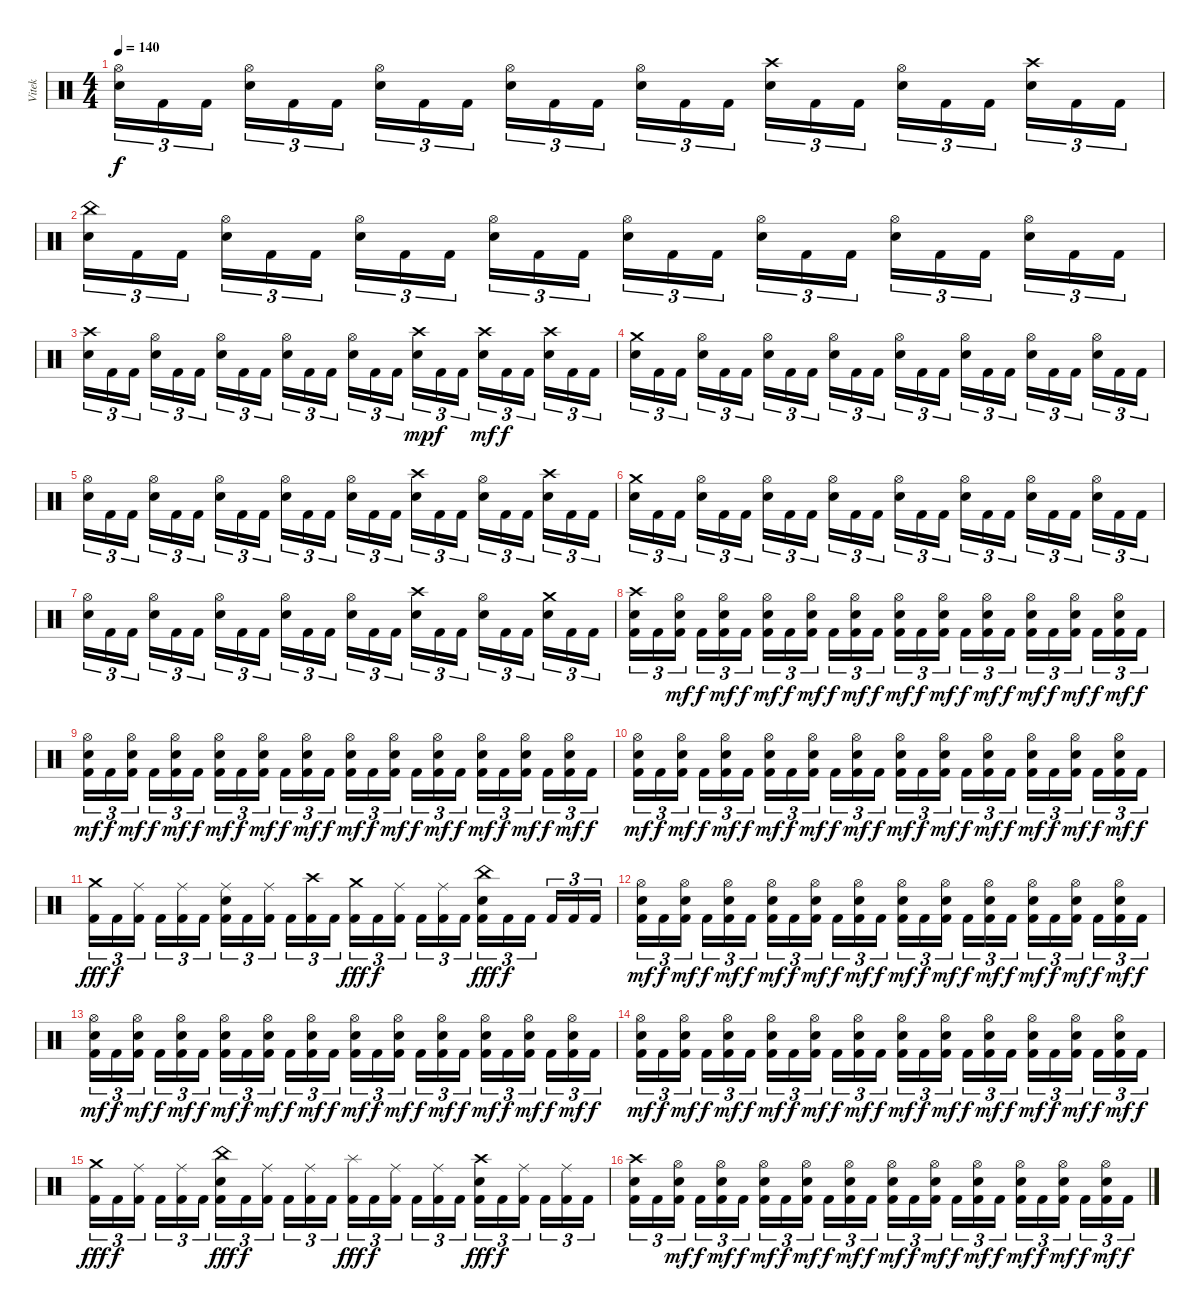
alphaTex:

\track ("Vitek" "Vitek") {instrument percussion}
\staff {score}
\articulation defaults
\ts (4 4)
\tempo 140
\clef neutral
\ks c
("Hi-Hat (open)" "Electric Snare (hit)").16{tu (3 2) dy f} "Kick (hit) 2".16{tu (3 2)} "Kick (hit) 2".16{tu (3 2)} ("Hi-Hat (open)" "Electric Snare (hit)").16{tu (3 2)} "Kick (hit) 2".16{tu (3 2)} "Kick (hit) 2".16{tu (3 2)} ("Hi-Hat (open)" "Electric Snare (hit)").16{tu (3 2)} "Kick (hit) 2".16{tu (3 2)} "Kick (hit) 2".16{tu (3 2)} ("Hi-Hat (open)" "Electric Snare (hit)").16{tu (3 2)} "Kick (hit) 2".16{tu (3 2)} "Kick (hit) 2".16{tu (3 2)} ("Hi-Hat (open)" "Electric Snare (hit)").16{tu (3 2)} "Kick (hit) 2".16{tu (3 2)} "Kick (hit) 2".16{tu (3 2)} ("Crash high (hit)" "Electric Snare (hit)").16{tu (3 2)} "Kick (hit) 2".16{tu (3 2)} "Kick (hit) 2".16{tu (3 2)} ("Hi-Hat (open)" "Electric Snare (hit)").16{tu (3 2)} "Kick (hit) 2".16{tu (3 2)} "Kick (hit) 2".16{tu (3 2)} ("Crash high (hit)" "Electric Snare (hit)").16{tu (3 2)} "Kick (hit) 2".16{tu (3 2)} "Kick (hit) 2".16{tu (3 2)} |
("China (hit)" "Electric Snare (hit)").16{tu (3 2)} "Kick (hit) 2".16{tu (3 2)} "Kick (hit) 2".16{tu (3 2)} ("Hi-Hat (open)" "Electric Snare (hit)").16{tu (3 2)} "Kick (hit) 2".16{tu (3 2)} "Kick (hit) 2".16{tu (3 2)} ("Hi-Hat (open)" "Electric Snare (hit)").16{tu (3 2)} "Kick (hit) 2".16{tu (3 2)} "Kick (hit) 2".16{tu (3 2)} ("Hi-Hat (open)" "Electric Snare (hit)").16{tu (3 2)} "Kick (hit) 2".16{tu (3 2)} "Kick (hit) 2".16{tu (3 2)} ("Hi-Hat (open)" "Electric Snare (hit)").16{tu (3 2)} "Kick (hit) 2".16{tu (3 2)} "Kick (hit) 2".16{tu (3 2)} ("Hi-Hat (open)" "Electric Snare (hit)").16{tu (3 2)} "Kick (hit) 2".16{tu (3 2)} "Kick (hit) 2".16{tu (3 2)} ("Hi-Hat (open)" "Electric Snare (hit)").16{tu (3 2)} "Kick (hit) 2".16{tu (3 2)} "Kick (hit) 2".16{tu (3 2)} ("Hi-Hat (open)" "Electric Snare (hit)").16{tu (3 2)} "Kick (hit) 2".16{tu (3 2)} "Kick (hit) 2".16{tu (3 2)} |
("Crash high (hit)" "Electric Snare (hit)").16{tu (3 2)} "Kick (hit) 2".16{tu (3 2)} "Kick (hit) 2".16{tu (3 2)} ("Hi-Hat (open)" "Electric Snare (hit)").16{tu (3 2)} "Kick (hit) 2".16{tu (3 2)} "Kick (hit) 2".16{tu (3 2)} ("Hi-Hat (open)" "Electric Snare (hit)").16{tu (3 2)} "Kick (hit) 2".16{tu (3 2)} "Kick (hit) 2".16{tu (3 2)} ("Hi-Hat (open)" "Electric Snare (hit)").16{tu (3 2)} "Kick (hit) 2".16{tu (3 2)} "Kick (hit) 2".16{tu (3 2)} ("Hi-Hat (open)" "Electric Snare (hit)").16{tu (3 2)} "Kick (hit) 2".16{tu (3 2)} "Kick (hit) 2".16{tu (3 2)} ("Crash high (hit)" "Electric Snare (hit)").16{tu (3 2) dy mp} "Kick (hit) 2".16{tu (3 2) dy f} "Kick (hit) 2".16{tu (3 2)} ("Crash high (hit)" "Electric Snare (hit)").16{tu (3 2) dy mf} "Kick (hit) 2".16{tu (3 2) dy f} "Kick (hit) 2".16{tu (3 2)} ("Crash high (hit)" "Electric Snare (hit)").16{tu (3 2)} "Kick (hit) 2".16{tu (3 2)} "Kick (hit) 2".16{tu (3 2)} |
("Crash medium (hit)" "Electric Snare (hit)").16{tu (3 2)} "Kick (hit) 2".16{tu (3 2)} "Kick (hit) 2".16{tu (3 2)} ("Hi-Hat (open)" "Electric Snare (hit)").16{tu (3 2)} "Kick (hit) 2".16{tu (3 2)} "Kick (hit) 2".16{tu (3 2)} ("Hi-Hat (open)" "Electric Snare (hit)").16{tu (3 2)} "Kick (hit) 2".16{tu (3 2)} "Kick (hit) 2".16{tu (3 2)} ("Hi-Hat (open)" "Electric Snare (hit)").16{tu (3 2)} "Kick (hit) 2".16{tu (3 2)} "Kick (hit) 2".16{tu (3 2)} ("Hi-Hat (open)" "Electric Snare (hit)").16{tu (3 2)} "Kick (hit) 2".16{tu (3 2)} "Kick (hit) 2".16{tu (3 2)} ("Hi-Hat (open)" "Electric Snare (hit)").16{tu (3 2)} "Kick (hit) 2".16{tu (3 2)} "Kick (hit) 2".16{tu (3 2)} ("Hi-Hat (open)" "Electric Snare (hit)").16{tu (3 2)} "Kick (hit) 2".16{tu (3 2)} "Kick (hit) 2".16{tu (3 2)} ("Hi-Hat (open)" "Electric Snare (hit)").16{tu (3 2)} "Kick (hit) 2".16{tu (3 2)} "Kick (hit) 2".16{tu (3 2)} |
("Hi-Hat (open)" "Electric Snare (hit)").16{tu (3 2)} "Kick (hit) 2".16{tu (3 2)} "Kick (hit) 2".16{tu (3 2)} ("Hi-Hat (open)" "Electric Snare (hit)").16{tu (3 2)} "Kick (hit) 2".16{tu (3 2)} "Kick (hit) 2".16{tu (3 2)} ("Hi-Hat (open)" "Electric Snare (hit)").16{tu (3 2)} "Kick (hit) 2".16{tu (3 2)} "Kick (hit) 2".16{tu (3 2)} ("Hi-Hat (open)" "Electric Snare (hit)").16{tu (3 2)} "Kick (hit) 2".16{tu (3 2)} "Kick (hit) 2".16{tu (3 2)} ("Hi-Hat (open)" "Electric Snare (hit)").16{tu (3 2)} "Kick (hit) 2".16{tu (3 2)} "Kick (hit) 2".16{tu (3 2)} ("Crash high (hit)" "Electric Snare (hit)").16{tu (3 2)} "Kick (hit) 2".16{tu (3 2)} "Kick (hit) 2".16{tu (3 2)} ("Hi-Hat (open)" "Electric Snare (hit)").16{tu (3 2)} "Kick (hit) 2".16{tu (3 2)} "Kick (hit) 2".16{tu (3 2)} ("Crash high (hit)" "Electric Snare (hit)").16{tu (3 2)} "Kick (hit) 2".16{tu (3 2)} "Kick (hit) 2".16{tu (3 2)} |
("Crash medium (hit)" "Electric Snare (hit)").16{tu (3 2)} "Kick (hit) 2".16{tu (3 2)} "Kick (hit) 2".16{tu (3 2)} ("Hi-Hat (open)" "Electric Snare (hit)").16{tu (3 2)} "Kick (hit) 2".16{tu (3 2)} "Kick (hit) 2".16{tu (3 2)} ("Hi-Hat (open)" "Electric Snare (hit)").16{tu (3 2)} "Kick (hit) 2".16{tu (3 2)} "Kick (hit) 2".16{tu (3 2)} ("Hi-Hat (open)" "Electric Snare (hit)").16{tu (3 2)} "Kick (hit) 2".16{tu (3 2)} "Kick (hit) 2".16{tu (3 2)} ("Hi-Hat (open)" "Electric Snare (hit)").16{tu (3 2)} "Kick (hit) 2".16{tu (3 2)} "Kick (hit) 2".16{tu (3 2)} ("Hi-Hat (open)" "Electric Snare (hit)").16{tu (3 2)} "Kick (hit) 2".16{tu (3 2)} "Kick (hit) 2".16{tu (3 2)} ("Hi-Hat (open)" "Electric Snare (hit)").16{tu (3 2)} "Kick (hit) 2".16{tu (3 2)} "Kick (hit) 2".16{tu (3 2)} ("Hi-Hat (open)" "Electric Snare (hit)").16{tu (3 2)} "Kick (hit) 2".16{tu (3 2)} "Kick (hit) 2".16{tu (3 2)} |
("Hi-Hat (open)" "Electric Snare (hit)").16{tu (3 2)} "Kick (hit) 2".16{tu (3 2)} "Kick (hit) 2".16{tu (3 2)} ("Hi-Hat (open)" "Electric Snare (hit)").16{tu (3 2)} "Kick (hit) 2".16{tu (3 2)} "Kick (hit) 2".16{tu (3 2)} ("Hi-Hat (open)" "Electric Snare (hit)").16{tu (3 2)} "Kick (hit) 2".16{tu (3 2)} "Kick (hit) 2".16{tu (3 2)} ("Hi-Hat (open)" "Electric Snare (hit)").16{tu (3 2)} "Kick (hit) 2".16{tu (3 2)} "Kick (hit) 2".16{tu (3 2)} ("Hi-Hat (open)" "Electric Snare (hit)").16{tu (3 2)} "Kick (hit) 2".16{tu (3 2)} "Kick (hit) 2".16{tu (3 2)} ("Crash high (hit)" "Electric Snare (hit)").16{tu (3 2)} "Kick (hit) 2".16{tu (3 2)} "Kick (hit) 2".16{tu (3 2)} ("Hi-Hat (open)" "Electric Snare (hit)").16{tu (3 2)} "Kick (hit) 2".16{tu (3 2)} "Kick (hit) 2".16{tu (3 2)} ("Crash medium (hit)" "Electric Snare (hit)").16{tu (3 2)} "Kick (hit) 2".16{tu (3 2)} "Kick (hit) 2".16{tu (3 2)} |
("Crash high (hit)" "Electric Snare (hit)" "Kick (hit) 2").16{tu (3 2)} "Kick (hit) 2".16{tu (3 2)} ("Hi-Hat (open)" "Electric Snare (hit)" "Kick (hit) 2").16{tu (3 2) dy mf} "Kick (hit) 2".16{tu (3 2) dy f} ("Hi-Hat (open)" "Electric Snare (hit)" "Kick (hit) 2").16{tu (3 2) dy mf} "Kick (hit) 2".16{tu (3 2) dy f} ("Hi-Hat (open)" "Electric Snare (hit)" "Kick (hit) 2").16{tu (3 2) dy mf} "Kick (hit) 2".16{tu (3 2) dy f} ("Hi-Hat (open)" "Electric Snare (hit)" "Kick (hit) 2").16{tu (3 2) dy mf} "Kick (hit) 2".16{tu (3 2) dy f} ("Hi-Hat (open)" "Electric Snare (hit)" "Kick (hit) 2").16{tu (3 2) dy mf} "Kick (hit) 2".16{tu (3 2) dy f} ("Hi-Hat (open)" "Electric Snare (hit)" "Kick (hit) 2").16{tu (3 2) dy mf} "Kick (hit) 2".16{tu (3 2) dy f} ("Hi-Hat (open)" "Electric Snare (hit)" "Kick (hit) 2").16{tu (3 2) dy mf} "Kick (hit) 2".16{tu (3 2) dy f} ("Hi-Hat (open)" "Electric Snare (hit)" "Kick (hit) 2").16{tu (3 2) dy mf} "Kick (hit) 2".16{tu (3 2) dy f} ("Hi-Hat (open)" "Electric Snare (hit)" "Kick (hit) 2").16{tu (3 2) dy mf} "Kick (hit) 2".16{tu (3 2) dy f} ("Hi-Hat (open)" "Electric Snare (hit)" "Kick (hit) 2").16{tu (3 2) dy mf} "Kick (hit) 2".16{tu (3 2) dy f} ("Hi-Hat (open)" "Electric Snare (hit)" "Kick (hit) 2").16{tu (3 2) dy mf} "Kick (hit) 2".16{tu (3 2) dy f} |
("Hi-Hat (open)" "Electric Snare (hit)" "Kick (hit) 2").16{tu (3 2) dy mf} "Kick (hit) 2".16{tu (3 2) dy f} ("Hi-Hat (open)" "Electric Snare (hit)" "Kick (hit) 2").16{tu (3 2) dy mf} "Kick (hit) 2".16{tu (3 2) dy f} ("Hi-Hat (open)" "Electric Snare (hit)" "Kick (hit) 2").16{tu (3 2) dy mf} "Kick (hit) 2".16{tu (3 2) dy f} ("Hi-Hat (open)" "Electric Snare (hit)" "Kick (hit) 2").16{tu (3 2) dy mf} "Kick (hit) 2".16{tu (3 2) dy f} ("Hi-Hat (open)" "Electric Snare (hit)" "Kick (hit) 2").16{tu (3 2) dy mf} "Kick (hit) 2".16{tu (3 2) dy f} ("Hi-Hat (open)" "Electric Snare (hit)" "Kick (hit) 2").16{tu (3 2) dy mf} "Kick (hit) 2".16{tu (3 2) dy f} ("Hi-Hat (open)" "Electric Snare (hit)" "Kick (hit) 2").16{tu (3 2) dy mf} "Kick (hit) 2".16{tu (3 2) dy f} ("Hi-Hat (open)" "Electric Snare (hit)" "Kick (hit) 2").16{tu (3 2) dy mf} "Kick (hit) 2".16{tu (3 2) dy f} ("Hi-Hat (open)" "Electric Snare (hit)" "Kick (hit) 2").16{tu (3 2) dy mf} "Kick (hit) 2".16{tu (3 2) dy f} ("Hi-Hat (open)" "Electric Snare (hit)" "Kick (hit) 2").16{tu (3 2) dy mf} "Kick (hit) 2".16{tu (3 2) dy f} ("Hi-Hat (open)" "Electric Snare (hit)" "Kick (hit) 2").16{tu (3 2) dy mf} "Kick (hit) 2".16{tu (3 2) dy f} ("Hi-Hat (open)" "Electric Snare (hit)" "Kick (hit) 2").16{tu (3 2) dy mf} "Kick (hit) 2".16{tu (3 2) dy f} |
("Hi-Hat (open)" "Electric Snare (hit)" "Kick (hit) 2").16{tu (3 2) dy mf} "Kick (hit) 2".16{tu (3 2) dy f} ("Hi-Hat (open)" "Electric Snare (hit)" "Kick (hit) 2").16{tu (3 2) dy mf} "Kick (hit) 2".16{tu (3 2) dy f} ("Hi-Hat (open)" "Electric Snare (hit)" "Kick (hit) 2").16{tu (3 2) dy mf} "Kick (hit) 2".16{tu (3 2) dy f} ("Hi-Hat (open)" "Electric Snare (hit)" "Kick (hit) 2").16{tu (3 2) dy mf} "Kick (hit) 2".16{tu (3 2) dy f} ("Hi-Hat (open)" "Electric Snare (hit)" "Kick (hit) 2").16{tu (3 2) dy mf} "Kick (hit) 2".16{tu (3 2) dy f} ("Hi-Hat (open)" "Electric Snare (hit)" "Kick (hit) 2").16{tu (3 2) dy mf} "Kick (hit) 2".16{tu (3 2) dy f} ("Hi-Hat (open)" "Electric Snare (hit)" "Kick (hit) 2").16{tu (3 2) dy mf} "Kick (hit) 2".16{tu (3 2) dy f} ("Hi-Hat (open)" "Electric Snare (hit)" "Kick (hit) 2").16{tu (3 2) dy mf} "Kick (hit) 2".16{tu (3 2) dy f} ("Hi-Hat (open)" "Electric Snare (hit)" "Kick (hit) 2").16{tu (3 2) dy mf} "Kick (hit) 2".16{tu (3 2) dy f} ("Hi-Hat (open)" "Electric Snare (hit)" "Kick (hit) 2").16{tu (3 2) dy mf} "Kick (hit) 2".16{tu (3 2) dy f} ("Hi-Hat (open)" "Electric Snare (hit)" "Kick (hit) 2").16{tu (3 2) dy mf} "Kick (hit) 2".16{tu (3 2) dy f} ("Hi-Hat (open)" "Electric Snare (hit)" "Kick (hit) 2").16{tu (3 2) dy mf} "Kick (hit) 2".16{tu (3 2) dy f} |
("Crash medium (hit)" "Kick (hit) 2").16{tu (3 2) dy fff} "Kick (hit) 2".16{tu (3 2) dy f} ("Ride (middle)" "Kick (hit) 2").16{tu (3 2)} "Kick (hit) 2".16{tu (3 2)} ("Ride (middle)" "Kick (hit) 2").16{tu (3 2)} "Kick (hit) 2".16{tu (3 2)} ("Ride (middle)" "Electric Snare (hit)" "Kick (hit) 2").16{tu (3 2)} "Kick (hit) 2".16{tu (3 2)} ("Ride (middle)" "Kick (hit) 2").16{tu (3 2)} "Kick (hit) 2".16{tu (3 2)} ("Crash high (hit)" "Kick (hit) 2").16{tu (3 2)} "Kick (hit) 2".16{tu (3 2)} ("Crash medium (hit)" "Kick (hit) 2").16{tu (3 2) dy fff} "Kick (hit) 2".16{tu (3 2) dy f} ("Ride (middle)" "Kick (hit) 2").16{tu (3 2)} "Kick (hit) 2".16{tu (3 2)} ("Ride (middle)" "Kick (hit) 2").16{tu (3 2)} "Kick (hit) 2".16{tu (3 2)} ("China (hit)" "Electric Snare (hit)" "Kick (hit) 2").16{tu (3 2) dy fff} "Kick (hit) 2".16{tu (3 2) dy f} "Kick (hit) 2".16{tu (3 2)} "Kick (hit) 2".16{tu (3 2)} "Kick (hit) 2".16{tu (3 2)} "Kick (hit) 2".16{tu (3 2)} |
("Hi-Hat (open)" "Electric Snare (hit)" "Kick (hit) 2").16{tu (3 2) dy mf} "Kick (hit) 2".16{tu (3 2) dy f} ("Hi-Hat (open)" "Electric Snare (hit)" "Kick (hit) 2").16{tu (3 2) dy mf} "Kick (hit) 2".16{tu (3 2) dy f} ("Hi-Hat (open)" "Electric Snare (hit)" "Kick (hit) 2").16{tu (3 2) dy mf} "Kick (hit) 2".16{tu (3 2) dy f} ("Hi-Hat (open)" "Electric Snare (hit)" "Kick (hit) 2").16{tu (3 2) dy mf} "Kick (hit) 2".16{tu (3 2) dy f} ("Hi-Hat (open)" "Electric Snare (hit)" "Kick (hit) 2").16{tu (3 2) dy mf} "Kick (hit) 2".16{tu (3 2) dy f} ("Hi-Hat (open)" "Electric Snare (hit)" "Kick (hit) 2").16{tu (3 2) dy mf} "Kick (hit) 2".16{tu (3 2) dy f} ("Hi-Hat (open)" "Electric Snare (hit)" "Kick (hit) 2").16{tu (3 2) dy mf} "Kick (hit) 2".16{tu (3 2) dy f} ("Hi-Hat (open)" "Electric Snare (hit)" "Kick (hit) 2").16{tu (3 2) dy mf} "Kick (hit) 2".16{tu (3 2) dy f} ("Hi-Hat (open)" "Electric Snare (hit)" "Kick (hit) 2").16{tu (3 2) dy mf} "Kick (hit) 2".16{tu (3 2) dy f} ("Hi-Hat (open)" "Electric Snare (hit)" "Kick (hit) 2").16{tu (3 2) dy mf} "Kick (hit) 2".16{tu (3 2) dy f} ("Hi-Hat (open)" "Electric Snare (hit)" "Kick (hit) 2").16{tu (3 2) dy mf} "Kick (hit) 2".16{tu (3 2) dy f} ("Hi-Hat (open)" "Electric Snare (hit)" "Kick (hit) 2").16{tu (3 2) dy mf} "Kick (hit) 2".16{tu (3 2) dy f} |
("Hi-Hat (open)" "Electric Snare (hit)" "Kick (hit) 2").16{tu (3 2) dy mf} "Kick (hit) 2".16{tu (3 2) dy f} ("Hi-Hat (open)" "Electric Snare (hit)" "Kick (hit) 2").16{tu (3 2) dy mf} "Kick (hit) 2".16{tu (3 2) dy f} ("Hi-Hat (open)" "Electric Snare (hit)" "Kick (hit) 2").16{tu (3 2) dy mf} "Kick (hit) 2".16{tu (3 2) dy f} ("Hi-Hat (open)" "Electric Snare (hit)" "Kick (hit) 2").16{tu (3 2) dy mf} "Kick (hit) 2".16{tu (3 2) dy f} ("Hi-Hat (open)" "Electric Snare (hit)" "Kick (hit) 2").16{tu (3 2) dy mf} "Kick (hit) 2".16{tu (3 2) dy f} ("Hi-Hat (open)" "Electric Snare (hit)" "Kick (hit) 2").16{tu (3 2) dy mf} "Kick (hit) 2".16{tu (3 2) dy f} ("Hi-Hat (open)" "Electric Snare (hit)" "Kick (hit) 2").16{tu (3 2) dy mf} "Kick (hit) 2".16{tu (3 2) dy f} ("Hi-Hat (open)" "Electric Snare (hit)" "Kick (hit) 2").16{tu (3 2) dy mf} "Kick (hit) 2".16{tu (3 2) dy f} ("Hi-Hat (open)" "Electric Snare (hit)" "Kick (hit) 2").16{tu (3 2) dy mf} "Kick (hit) 2".16{tu (3 2) dy f} ("Hi-Hat (open)" "Electric Snare (hit)" "Kick (hit) 2").16{tu (3 2) dy mf} "Kick (hit) 2".16{tu (3 2) dy f} ("Hi-Hat (open)" "Electric Snare (hit)" "Kick (hit) 2").16{tu (3 2) dy mf} "Kick (hit) 2".16{tu (3 2) dy f} ("Hi-Hat (open)" "Electric Snare (hit)" "Kick (hit) 2").16{tu (3 2) dy mf} "Kick (hit) 2".16{tu (3 2) dy f} |
("Hi-Hat (open)" "Electric Snare (hit)" "Kick (hit) 2").16{tu (3 2) dy mf} "Kick (hit) 2".16{tu (3 2) dy f} ("Hi-Hat (open)" "Electric Snare (hit)" "Kick (hit) 2").16{tu (3 2) dy mf} "Kick (hit) 2".16{tu (3 2) dy f} ("Hi-Hat (open)" "Electric Snare (hit)" "Kick (hit) 2").16{tu (3 2) dy mf} "Kick (hit) 2".16{tu (3 2) dy f} ("Hi-Hat (open)" "Electric Snare (hit)" "Kick (hit) 2").16{tu (3 2) dy mf} "Kick (hit) 2".16{tu (3 2) dy f} ("Hi-Hat (open)" "Electric Snare (hit)" "Kick (hit) 2").16{tu (3 2) dy mf} "Kick (hit) 2".16{tu (3 2) dy f} ("Hi-Hat (open)" "Electric Snare (hit)" "Kick (hit) 2").16{tu (3 2) dy mf} "Kick (hit) 2".16{tu (3 2) dy f} ("Hi-Hat (open)" "Electric Snare (hit)" "Kick (hit) 2").16{tu (3 2) dy mf} "Kick (hit) 2".16{tu (3 2) dy f} ("Hi-Hat (open)" "Electric Snare (hit)" "Kick (hit) 2").16{tu (3 2) dy mf} "Kick (hit) 2".16{tu (3 2) dy f} ("Hi-Hat (open)" "Electric Snare (hit)" "Kick (hit) 2").16{tu (3 2) dy mf} "Kick (hit) 2".16{tu (3 2) dy f} ("Hi-Hat (open)" "Electric Snare (hit)" "Kick (hit) 2").16{tu (3 2) dy mf} "Kick (hit) 2".16{tu (3 2) dy f} ("Hi-Hat (open)" "Electric Snare (hit)" "Kick (hit) 2").16{tu (3 2) dy mf} "Kick (hit) 2".16{tu (3 2) dy f} ("Hi-Hat (open)" "Electric Snare (hit)" "Kick (hit) 2").16{tu (3 2) dy mf} "Kick (hit) 2".16{tu (3 2) dy f} |
("Crash medium (hit)" "Kick (hit) 2").16{tu (3 2) dy fff} "Kick (hit) 2".16{tu (3 2) dy f} ("Ride (middle)" "Kick (hit) 2").16{tu (3 2)} "Kick (hit) 2".16{tu (3 2)} ("Ride (middle)" "Kick (hit) 2").16{tu (3 2)} "Kick (hit) 2".16{tu (3 2)} ("China (hit)" "Electric Snare (hit)" "Kick (hit) 2").16{tu (3 2) dy fff} "Kick (hit) 2".16{tu (3 2) dy f} ("Ride (middle)" "Kick (hit) 2").16{tu (3 2)} "Kick (hit) 2".16{tu (3 2)} ("Ride (middle)" "Kick (hit) 2").16{tu (3 2)} "Kick (hit) 2".16{tu (3 2)} ("Splash (hit)" "Kick (hit) 2").16{tu (3 2) dy fff} "Kick (hit) 2".16{tu (3 2) dy f} ("Ride (middle)" "Kick (hit) 2").16{tu (3 2)} "Kick (hit) 2".16{tu (3 2)} ("Ride (middle)" "Kick (hit) 2").16{tu (3 2)} "Kick (hit) 2".16{tu (3 2)} ("Crash high (hit)" "Electric Snare (hit)" "Kick (hit) 2").16{tu (3 2) dy fff} "Kick (hit) 2".16{tu (3 2) dy f} ("Ride (middle)" "Kick (hit) 2").16{tu (3 2)} "Kick (hit) 2".16{tu (3 2)} ("Ride (middle)" "Kick (hit) 2").16{tu (3 2)} "Kick (hit) 2".16{tu (3 2)} |
("Crash high (hit)" "Electric Snare (hit)" "Kick (hit) 2").16{tu (3 2)} "Kick (hit) 2".16{tu (3 2)} ("Hi-Hat (open)" "Electric Snare (hit)" "Kick (hit) 2").16{tu (3 2) dy mf} "Kick (hit) 2".16{tu (3 2) dy f} ("Hi-Hat (open)" "Electric Snare (hit)" "Kick (hit) 2").16{tu (3 2) dy mf} "Kick (hit) 2".16{tu (3 2) dy f} ("Hi-Hat (open)" "Electric Snare (hit)" "Kick (hit) 2").16{tu (3 2) dy mf} "Kick (hit) 2".16{tu (3 2) dy f} ("Hi-Hat (open)" "Electric Snare (hit)" "Kick (hit) 2").16{tu (3 2) dy mf} "Kick (hit) 2".16{tu (3 2) dy f} ("Hi-Hat (open)" "Electric Snare (hit)" "Kick (hit) 2").16{tu (3 2) dy mf} "Kick (hit) 2".16{tu (3 2) dy f} ("Hi-Hat (open)" "Electric Snare (hit)" "Kick (hit) 2").16{tu (3 2) dy mf} "Kick (hit) 2".16{tu (3 2) dy f} ("Hi-Hat (open)" "Electric Snare (hit)" "Kick (hit) 2").16{tu (3 2) dy mf} "Kick (hit) 2".16{tu (3 2) dy f} ("Hi-Hat (open)" "Electric Snare (hit)" "Kick (hit) 2").16{tu (3 2) dy mf} "Kick (hit) 2".16{tu (3 2) dy f} ("Hi-Hat (open)" "Electric Snare (hit)" "Kick (hit) 2").16{tu (3 2) dy mf} "Kick (hit) 2".16{tu (3 2) dy f} ("Hi-Hat (open)" "Electric Snare (hit)" "Kick (hit) 2").16{tu (3 2) dy mf} "Kick (hit) 2".16{tu (3 2) dy f} ("Hi-Hat (open)" "Electric Snare (hit)" "Kick (hit) 2").16{tu (3 2) dy mf} "Kick (hit) 2".16{tu (3 2) dy f}
